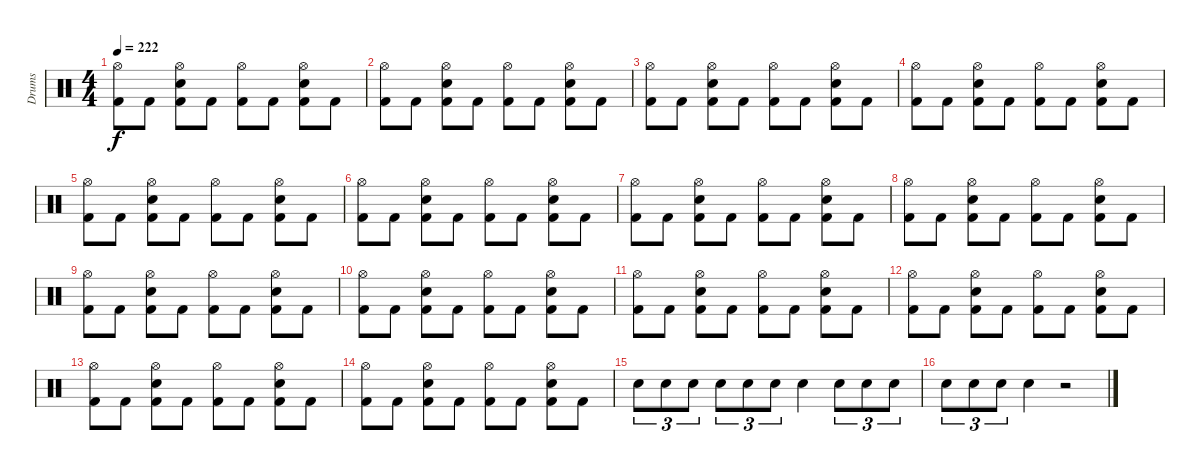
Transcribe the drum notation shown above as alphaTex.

\track ("Drums" "Drums") {instrument percussion}
\staff {score}
\articulation defaults
\ts (4 4)
\tempo 222
\clef neutral
\ks c
("Hi-Hat (open)" "Kick (hit) 2").8{dy f} "Kick (hit) 2".8 ("Hi-Hat (open)" "Electric Snare (hit)" "Kick (hit) 2").8 "Kick (hit) 2".8 ("Hi-Hat (open)" "Kick (hit) 2").8 "Kick (hit) 2".8 ("Hi-Hat (open)" "Electric Snare (hit)" "Kick (hit) 2").8 "Kick (hit) 2".8 |
("Hi-Hat (open)" "Kick (hit) 2").8 "Kick (hit) 2".8 ("Hi-Hat (open)" "Electric Snare (hit)" "Kick (hit) 2").8 "Kick (hit) 2".8 ("Hi-Hat (open)" "Kick (hit) 2").8 "Kick (hit) 2".8 ("Hi-Hat (open)" "Electric Snare (hit)" "Kick (hit) 2").8 "Kick (hit) 2".8 |
("Hi-Hat (open)" "Kick (hit) 2").8 "Kick (hit) 2".8 ("Hi-Hat (open)" "Electric Snare (hit)" "Kick (hit) 2").8 "Kick (hit) 2".8 ("Hi-Hat (open)" "Kick (hit) 2").8 "Kick (hit) 2".8 ("Hi-Hat (open)" "Electric Snare (hit)" "Kick (hit) 2").8 "Kick (hit) 2".8 |
("Hi-Hat (open)" "Kick (hit) 2").8 "Kick (hit) 2".8 ("Hi-Hat (open)" "Electric Snare (hit)" "Kick (hit) 2").8 "Kick (hit) 2".8 ("Hi-Hat (open)" "Kick (hit) 2").8 "Kick (hit) 2".8 ("Hi-Hat (open)" "Electric Snare (hit)" "Kick (hit) 2").8 "Kick (hit) 2".8 |
("Hi-Hat (open)" "Kick (hit) 2").8 "Kick (hit) 2".8 ("Hi-Hat (open)" "Electric Snare (hit)" "Kick (hit) 2").8 "Kick (hit) 2".8 ("Hi-Hat (open)" "Kick (hit) 2").8 "Kick (hit) 2".8 ("Hi-Hat (open)" "Electric Snare (hit)" "Kick (hit) 2").8 "Kick (hit) 2".8 |
("Hi-Hat (open)" "Kick (hit) 2").8 "Kick (hit) 2".8 ("Hi-Hat (open)" "Electric Snare (hit)" "Kick (hit) 2").8 "Kick (hit) 2".8 ("Hi-Hat (open)" "Kick (hit) 2").8 "Kick (hit) 2".8 ("Hi-Hat (open)" "Electric Snare (hit)" "Kick (hit) 2").8 "Kick (hit) 2".8 |
("Hi-Hat (open)" "Kick (hit) 2").8 "Kick (hit) 2".8 ("Hi-Hat (open)" "Electric Snare (hit)" "Kick (hit) 2").8 "Kick (hit) 2".8 ("Hi-Hat (open)" "Kick (hit) 2").8 "Kick (hit) 2".8 ("Hi-Hat (open)" "Electric Snare (hit)" "Kick (hit) 2").8 "Kick (hit) 2".8 |
("Hi-Hat (open)" "Kick (hit) 2").8 "Kick (hit) 2".8 ("Hi-Hat (open)" "Electric Snare (hit)" "Kick (hit) 2").8 "Kick (hit) 2".8 ("Hi-Hat (open)" "Kick (hit) 2").8 "Kick (hit) 2".8 ("Hi-Hat (open)" "Electric Snare (hit)" "Kick (hit) 2").8 "Kick (hit) 2".8 |
("Hi-Hat (open)" "Kick (hit) 2").8 "Kick (hit) 2".8 ("Hi-Hat (open)" "Electric Snare (hit)" "Kick (hit) 2").8 "Kick (hit) 2".8 ("Hi-Hat (open)" "Kick (hit) 2").8 "Kick (hit) 2".8 ("Hi-Hat (open)" "Electric Snare (hit)" "Kick (hit) 2").8 "Kick (hit) 2".8 |
("Hi-Hat (open)" "Kick (hit) 2").8 "Kick (hit) 2".8 ("Hi-Hat (open)" "Electric Snare (hit)" "Kick (hit) 2").8 "Kick (hit) 2".8 ("Hi-Hat (open)" "Kick (hit) 2").8 "Kick (hit) 2".8 ("Hi-Hat (open)" "Electric Snare (hit)" "Kick (hit) 2").8 "Kick (hit) 2".8 |
("Hi-Hat (open)" "Kick (hit) 2").8 "Kick (hit) 2".8 ("Hi-Hat (open)" "Electric Snare (hit)" "Kick (hit) 2").8 "Kick (hit) 2".8 ("Hi-Hat (open)" "Kick (hit) 2").8 "Kick (hit) 2".8 ("Hi-Hat (open)" "Electric Snare (hit)" "Kick (hit) 2").8 "Kick (hit) 2".8 |
("Hi-Hat (open)" "Kick (hit) 2").8 "Kick (hit) 2".8 ("Hi-Hat (open)" "Electric Snare (hit)" "Kick (hit) 2").8 "Kick (hit) 2".8 ("Hi-Hat (open)" "Kick (hit) 2").8 "Kick (hit) 2".8 ("Hi-Hat (open)" "Electric Snare (hit)" "Kick (hit) 2").8 "Kick (hit) 2".8 |
("Hi-Hat (open)" "Kick (hit) 2").8 "Kick (hit) 2".8 ("Hi-Hat (open)" "Electric Snare (hit)" "Kick (hit) 2").8 "Kick (hit) 2".8 ("Hi-Hat (open)" "Kick (hit) 2").8 "Kick (hit) 2".8 ("Hi-Hat (open)" "Electric Snare (hit)" "Kick (hit) 2").8 "Kick (hit) 2".8 |
("Hi-Hat (open)" "Kick (hit) 2").8 "Kick (hit) 2".8 ("Hi-Hat (open)" "Electric Snare (hit)" "Kick (hit) 2").8 "Kick (hit) 2".8 ("Hi-Hat (open)" "Kick (hit) 2").8 "Kick (hit) 2".8 ("Hi-Hat (open)" "Electric Snare (hit)" "Kick (hit) 2").8 "Kick (hit) 2".8 |
"Electric Snare (hit)".8{tu (3 2)} "Electric Snare (hit)".8{tu (3 2)} "Electric Snare (hit)".8{tu (3 2)} "Electric Snare (hit)".8{tu (3 2)} "Electric Snare (hit)".8{tu (3 2)} "Electric Snare (hit)".8{tu (3 2)} "Electric Snare (hit)".4 "Electric Snare (hit)".8{tu (3 2)} "Electric Snare (hit)".8{tu (3 2)} "Electric Snare (hit)".8{tu (3 2)} |
"Electric Snare (hit)".8{tu (3 2)} "Electric Snare (hit)".8{tu (3 2)} "Electric Snare (hit)".8{tu (3 2)} "Electric Snare (hit)".4 r.2
